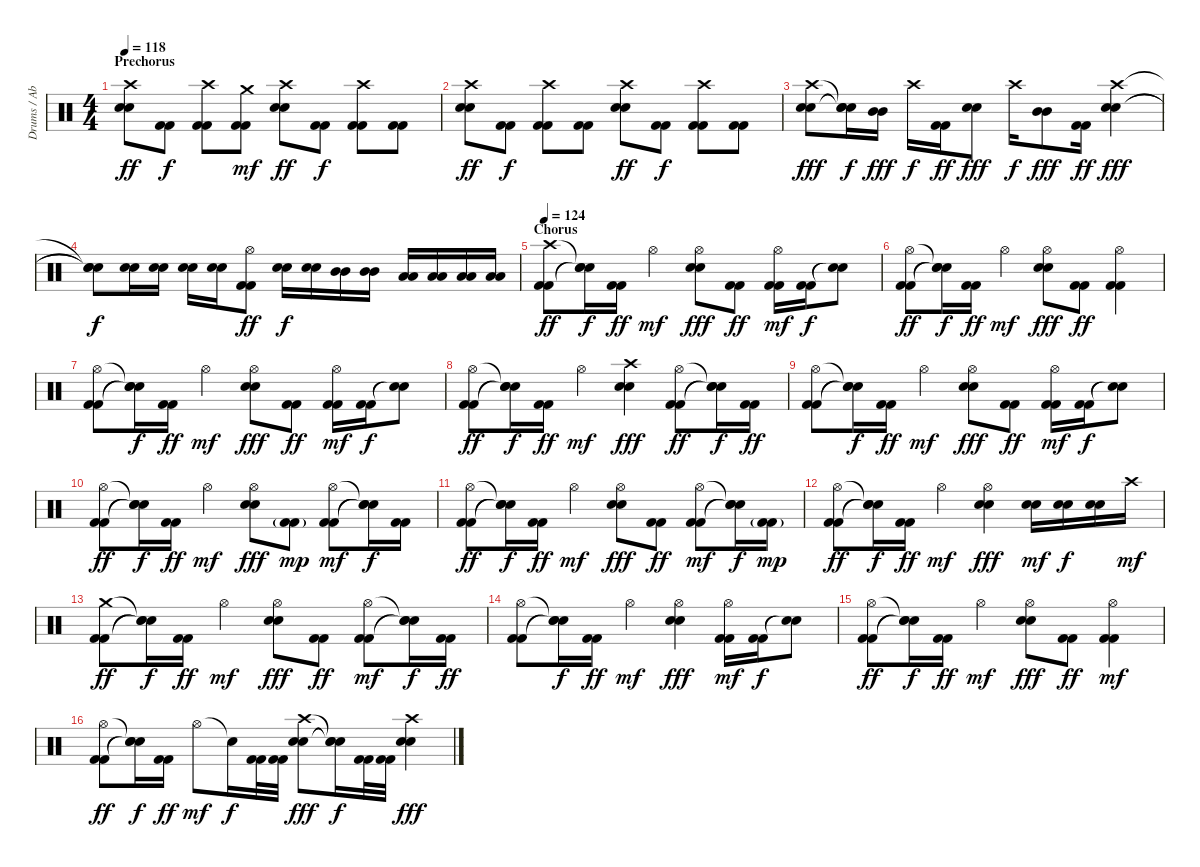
\track ("Drums / Abe Cunningham" "Drums / Ab") {instrument percussion}
\staff {score}
\articulation defaults
\ts (4 4)
\section ("" "Prechorus")
\tempo 118
\clef neutral
\ks c
("Crash high (hit)" "Electric Snare (hit)" "Electric Snare (hit)").8{dy ff} ("Kick (hit) 2" "Kick (hit) 2").8{dy f} ("Crash high (hit)" "Kick (hit) 2" "Kick (hit) 2").8 ("Crash medium (hit)" "Kick (hit) 2" "Kick (hit) 2").8{dy mf} ("Crash high (hit)" "Electric Snare (hit)" "Electric Snare (hit)").8{dy ff} ("Kick (hit) 2" "Kick (hit) 2").8{dy f} ("Crash high (hit)" "Kick (hit) 2" "Kick (hit) 2").8 ("Kick (hit) 2" "Kick (hit) 2").8 |
("Crash high (hit)" "Electric Snare (hit)" "Electric Snare (hit)").8{dy ff} ("Kick (hit) 2" "Kick (hit) 2").8{dy f} ("Crash high (hit)" "Kick (hit) 2" "Kick (hit) 2").8 ("Kick (hit) 2" "Kick (hit) 2").8 ("Crash high (hit)" "Electric Snare (hit)" "Electric Snare (hit)").8{dy ff} ("Kick (hit) 2" "Kick (hit) 2").8{dy f} ("Crash high (hit)" "Kick (hit) 2" "Kick (hit) 2").8 ("Kick (hit) 2" "Kick (hit) 2").8 |
("Crash high (hit)" "Electric Snare (hit)" "Electric Snare (hit)").8{dy fff} ("Snare (hit)"{t} "Snare (hit)"{t} "Snare (hit)"{t}).16{dy f} ("Mid Tom (hit)" "Mid Tom (hit)").16{dy fff} "Crash high (hit)".16{dy f} ("Kick (hit) 2" "Kick (hit) 2").16{dy ff} ("Electric Snare (hit)" "Electric Snare (hit)").8{dy fff} "Crash high (hit)".16{dy f} ("Mid Tom (hit)" "Mid Tom (hit)").8{dy fff} ("Kick (hit) 2" "Kick (hit) 2").16{dy ff} ("Crash high (hit)" "Electric Snare (hit)" "Electric Snare (hit)").4{dy fff} |
("Snare (hit)"{t} "Snare (hit)"{t} "Snare (hit)"{t}).8{dy f} ("Electric Snare (hit)" "Electric Snare (hit)").16 ("Electric Snare (hit)" "Electric Snare (hit)").16 ("Electric Snare (hit)" "Electric Snare (hit)").16 ("Electric Snare (hit)" "Electric Snare (hit)").16 ("Hi-Hat (open)" "Kick (hit) 2" "Kick (hit) 2").8{dy ff} ("Electric Snare (hit)" "Electric Snare (hit)").16{dy f} ("Electric Snare (hit)" "Electric Snare (hit)").16 ("Mid Tom (hit)" "Mid Tom (hit)").16 ("Mid Tom (hit)" "Mid Tom (hit)").16 ("Low Tom (hit)" "Low Tom (hit)").16 ("Low Tom (hit)" "Low Tom (hit)").16 ("Low Tom (hit)" "Low Tom (hit)").16 ("Low Tom (hit)" "Low Tom (hit)").16 |
\section ("" "Chorus")
\tempo 124
("Crash high (hit)" "Kick (hit) 2" "Kick (hit) 2").8{dy ff} ("Snare (hit)"{t} "Snare (hit)"{t} "Snare (hit)"{t}).16{dy f} ("Kick (hit) 2" "Kick (hit) 2").16{dy ff} "Hi-Hat (open)".4{dy mf} ("Hi-Hat (open)" "Electric Snare (hit)" "Electric Snare (hit)").8{dy fff} ("Kick (hit) 2" "Kick (hit) 2").8{dy ff} ("Hi-Hat (open)" "Kick (hit) 2" "Kick (hit) 2").16{dy mf} ("Kick (hit) 2" "Kick (hit) 2").16{dy f} ("Snare (hit)"{t} "Snare (hit)"{t}).8 |
("Hi-Hat (open)" "Kick (hit) 2" "Kick (hit) 2").8{dy ff} ("Snare (hit)"{t} "Snare (hit)"{t} "Snare (hit)"{t}).16{dy f} ("Kick (hit) 2" "Kick (hit) 2").16{dy ff} "Hi-Hat (open)".4{dy mf} ("Hi-Hat (open)" "Electric Snare (hit)" "Electric Snare (hit)").8{dy fff} ("Kick (hit) 2" "Kick (hit) 2").8{dy ff} ("Hi-Hat (open)" "Kick (hit) 2" "Kick (hit) 2").4 |
("Hi-Hat (open)" "Kick (hit) 2" "Kick (hit) 2").8 ("Snare (hit)"{t} "Snare (hit)"{t} "Snare (hit)"{t}).16{dy f} ("Kick (hit) 2" "Kick (hit) 2").16{dy ff} "Hi-Hat (open)".4{dy mf} ("Hi-Hat (open)" "Electric Snare (hit)" "Electric Snare (hit)").8{dy fff} ("Kick (hit) 2" "Kick (hit) 2").8{dy ff} ("Hi-Hat (open)" "Kick (hit) 2" "Kick (hit) 2").16{dy mf} ("Kick (hit) 2" "Kick (hit) 2").16{dy f} ("Snare (hit)"{t} "Snare (hit)"{t}).8 |
("Hi-Hat (open)" "Kick (hit) 2" "Kick (hit) 2").8{dy ff} ("Snare (hit)"{t} "Snare (hit)"{t} "Snare (hit)"{t}).16{dy f} ("Kick (hit) 2" "Kick (hit) 2").16{dy ff} "Hi-Hat (open)".4{dy mf} ("Crash high (hit)" "Electric Snare (hit)" "Electric Snare (hit)").4{dy fff} ("Hi-Hat (open)" "Kick (hit) 2" "Kick (hit) 2").8{dy ff} ("Snare (hit)"{t} "Snare (hit)"{t} "Snare (hit)"{t}).16{dy f} ("Kick (hit) 2" "Kick (hit) 2").16{dy ff} |
("Hi-Hat (open)" "Kick (hit) 2" "Kick (hit) 2").8 ("Snare (hit)"{t} "Snare (hit)"{t} "Snare (hit)"{t}).16{dy f} ("Kick (hit) 2" "Kick (hit) 2").16{dy ff} "Hi-Hat (open)".4{dy mf} ("Hi-Hat (open)" "Electric Snare (hit)" "Electric Snare (hit)").8{dy fff} ("Kick (hit) 2" "Kick (hit) 2").8{dy ff} ("Hi-Hat (open)" "Kick (hit) 2" "Kick (hit) 2").16{dy mf} ("Kick (hit) 2" "Kick (hit) 2").16{dy f} ("Snare (hit)"{t} "Snare (hit)"{t}).8 |
("Hi-Hat (open)" "Kick (hit) 2" "Kick (hit) 2").8{dy ff} ("Snare (hit)"{t} "Snare (hit)"{t} "Snare (hit)"{t}).16{dy f} ("Kick (hit) 2" "Kick (hit) 2").16{dy ff} "Hi-Hat (open)".4{dy mf} ("Hi-Hat (open)" "Electric Snare (hit)" "Electric Snare (hit)").8{dy fff} ("Kick (hit) 2"{g} "Kick (hit) 2"{g}).8{dy mp} ("Hi-Hat (open)" "Kick (hit) 2" "Kick (hit) 2").8{dy mf} ("Snare (hit)"{t} "Snare (hit)"{t} "Snare (hit)"{t}).16{dy f} ("Kick (hit) 2" "Kick (hit) 2").16 |
("Hi-Hat (open)" "Kick (hit) 2" "Kick (hit) 2").8{dy ff} ("Snare (hit)"{t} "Snare (hit)"{t} "Snare (hit)"{t}).16{dy f} ("Kick (hit) 2" "Kick (hit) 2").16{dy ff} "Hi-Hat (open)".4{dy mf} ("Hi-Hat (open)" "Electric Snare (hit)" "Electric Snare (hit)").8{dy fff} ("Kick (hit) 2" "Kick (hit) 2").8{dy ff} ("Hi-Hat (open)" "Kick (hit) 2" "Kick (hit) 2").8{dy mf} ("Snare (hit)"{t} "Snare (hit)"{t} "Snare (hit)"{t}).16{dy f} ("Kick (hit) 2"{g} "Kick (hit) 2"{g}).16{dy mp} |
("Hi-Hat (open)" "Kick (hit) 2" "Kick (hit) 2").8{dy ff} ("Snare (hit)"{t} "Snare (hit)"{t} "Snare (hit)"{t}).16{dy f} ("Kick (hit) 2" "Kick (hit) 2").16{dy ff} "Hi-Hat (open)".4{dy mf} ("Hi-Hat (open)" "Electric Snare (hit)" "Electric Snare (hit)").4{dy fff} ("Electric Snare (hit)" "Electric Snare (hit)").16{dy mf} ("Electric Snare (hit)" "Electric Snare (hit)").16{dy f} ("Electric Snare (hit)" "Electric Snare (hit)").16 "Crash high (hit)".16{dy mf} |
("Crash medium (hit)" "Kick (hit) 2" "Kick (hit) 2").8{dy ff} ("Snare (hit)"{t} "Snare (hit)"{t} "Snare (hit)"{t}).16{dy f} ("Kick (hit) 2" "Kick (hit) 2").16{dy ff} "Hi-Hat (open)".4{dy mf} ("Hi-Hat (open)" "Electric Snare (hit)" "Electric Snare (hit)").8{dy fff} ("Kick (hit) 2" "Kick (hit) 2").8{dy ff} ("Hi-Hat (open)" "Kick (hit) 2" "Kick (hit) 2").8{dy mf} ("Snare (hit)"{t} "Snare (hit)"{t} "Snare (hit)"{t}).16{dy f} ("Kick (hit) 2" "Kick (hit) 2").16{dy ff} |
("Hi-Hat (open)" "Kick (hit) 2" "Kick (hit) 2").8 ("Snare (hit)"{t} "Snare (hit)"{t} "Snare (hit)"{t}).16{dy f} ("Kick (hit) 2" "Kick (hit) 2").16{dy ff} "Hi-Hat (open)".4{dy mf} ("Hi-Hat (open)" "Electric Snare (hit)" "Electric Snare (hit)").4{dy fff} ("Hi-Hat (open)" "Kick (hit) 2" "Kick (hit) 2").16{dy mf} ("Kick (hit) 2" "Kick (hit) 2").16{dy f} ("Snare (hit)"{t} "Snare (hit)"{t}).8 |
("Hi-Hat (open)" "Kick (hit) 2" "Kick (hit) 2").8{dy ff} ("Snare (hit)"{t} "Snare (hit)"{t} "Snare (hit)"{t}).16{dy f} ("Kick (hit) 2" "Kick (hit) 2").16{dy ff} "Hi-Hat (open)".4{dy mf} ("Hi-Hat (open)" "Electric Snare (hit)" "Electric Snare (hit)").8{dy fff} ("Kick (hit) 2" "Kick (hit) 2").8{dy ff} ("Hi-Hat (open)" "Kick (hit) 2" "Kick (hit) 2").4{dy mf} |
("Hi-Hat (open)" "Kick (hit) 2" "Kick (hit) 2").8{dy ff} ("Snare (hit)"{t} "Snare (hit)"{t} "Snare (hit)"{t}).16{dy f} ("Kick (hit) 2" "Kick (hit) 2").16{dy ff} "Hi-Hat (open)".8{dy mf} "Snare (hit)"{t}.16{dy f} ("Kick (hit) 2" "Kick (hit) 2").32 ("Kick (hit) 2" "Kick (hit) 2").32 ("Crash high (hit)" "Electric Snare (hit)" "Electric Snare (hit)").8{dy fff} ("Snare (hit)"{t} "Snare (hit)"{t} "Snare (hit)"{t}).16{dy f} ("Kick (hit) 2" "Kick (hit) 2").32 ("Kick (hit) 2" "Kick (hit) 2").32 ("Crash high (hit)" "Electric Snare (hit)" "Electric Snare (hit)").4{dy fff}
